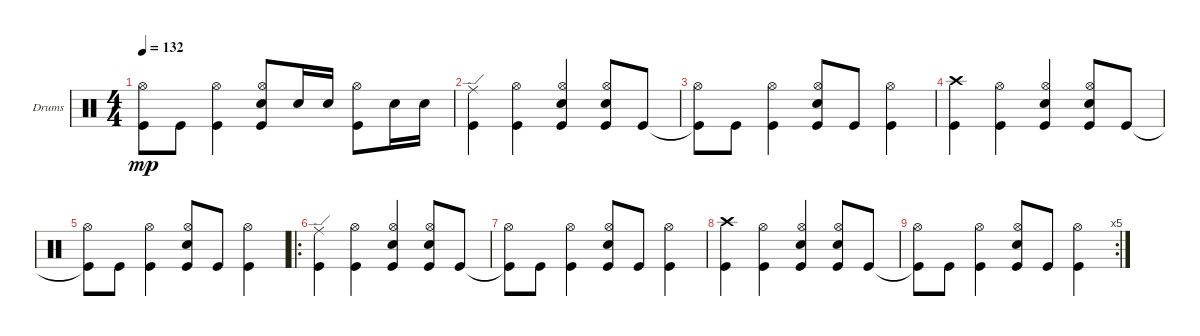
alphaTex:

\defaultSystemsLayout 4
\bracketExtendMode groupsimilarinstruments
\firstSystemTrackNameOrientation horizontal
\otherSystemsTrackNameOrientation horizontal
\track ("Steve Judd" "Drums") {instrument percussion}
\staff {score}
\articulation defaults
\ts (4 4)
\tempo 132
\clef neutral
\scale
0.333333
\ks c
("Kick (hit)"{t} "Hi-Hat (open)").8{dy mp} "Kick (hit)".8 ("Kick (hit)" "Hi-Hat (open)").4 ("Kick (hit)" "Hi-Hat (open)" "Snare (hit) 2").8 "Snare (hit) 2".16 "Snare (hit) 2".16 ("Kick (hit)" "Hi-Hat (open)").8 "Snare (hit) 2".16 "Snare (hit) 2".16 |
\scale
0.333333 ("Kick (hit)" "Ride (edge)").4 ("Kick (hit)" "Hi-Hat (open)").4 ("Kick (hit)" "Hi-Hat (open)" "Snare (hit) 2").4 ("Kick (hit)" "Hi-Hat (open)" "Snare (hit) 2").8 "Kick (hit)".8 |
\scale
0.333333 ("Kick (hit)"{t} "Hi-Hat (open)").8 "Kick (hit)".8 ("Kick (hit)" "Hi-Hat (open)").4 ("Kick (hit)" "Hi-Hat (open)" "Snare (hit) 2").8 "Kick (hit)".8 ("Kick (hit)" "Hi-Hat (open)").4 |
\scale
0.311111 ("Kick (hit)" "Crash high (hit)").4 ("Kick (hit)" "Hi-Hat (open)").4 ("Kick (hit)" "Hi-Hat (open)" "Snare (hit) 2").4 ("Kick (hit)" "Hi-Hat (open)" "Snare (hit) 2").8 "Kick (hit)".8 |
\scale
0.311111 ("Kick (hit)"{t} "Hi-Hat (open)").8 "Kick (hit)".8 ("Kick (hit)" "Hi-Hat (open)").4 ("Kick (hit)" "Hi-Hat (open)" "Snare (hit) 2").8 "Kick (hit)".8 ("Kick (hit)" "Hi-Hat (open)").4 |
\ro
\scale
0.377778 ("Kick (hit)" "Ride (edge)").4 ("Kick (hit)" "Hi-Hat (open)").4 ("Kick (hit)" "Hi-Hat (open)" "Snare (hit) 2").4 ("Kick (hit)" "Hi-Hat (open)" "Snare (hit) 2").8 "Kick (hit)".8 |
\scale
0.321839 ("Kick (hit)"{t} "Hi-Hat (open)").8 "Kick (hit)".8 ("Kick (hit)" "Hi-Hat (open)").4 ("Kick (hit)" "Hi-Hat (open)" "Snare (hit) 2").8 "Kick (hit)".8 ("Kick (hit)" "Hi-Hat (open)").4 |
\scale
0.321839 ("Kick (hit)" "Crash high (hit)").4 ("Kick (hit)" "Hi-Hat (open)").4 ("Kick (hit)" "Hi-Hat (open)" "Snare (hit) 2").4 ("Kick (hit)" "Hi-Hat (open)" "Snare (hit) 2").8 "Kick (hit)".8 |
\rc 5
\scale
0.356322 ("Kick (hit)"{t} "Hi-Hat (open)").8 "Kick (hit)".8 ("Kick (hit)" "Hi-Hat (open)").4 ("Kick (hit)" "Hi-Hat (open)" "Snare (hit) 2").8 "Kick (hit)".8 ("Kick (hit)" "Hi-Hat (open)").4
